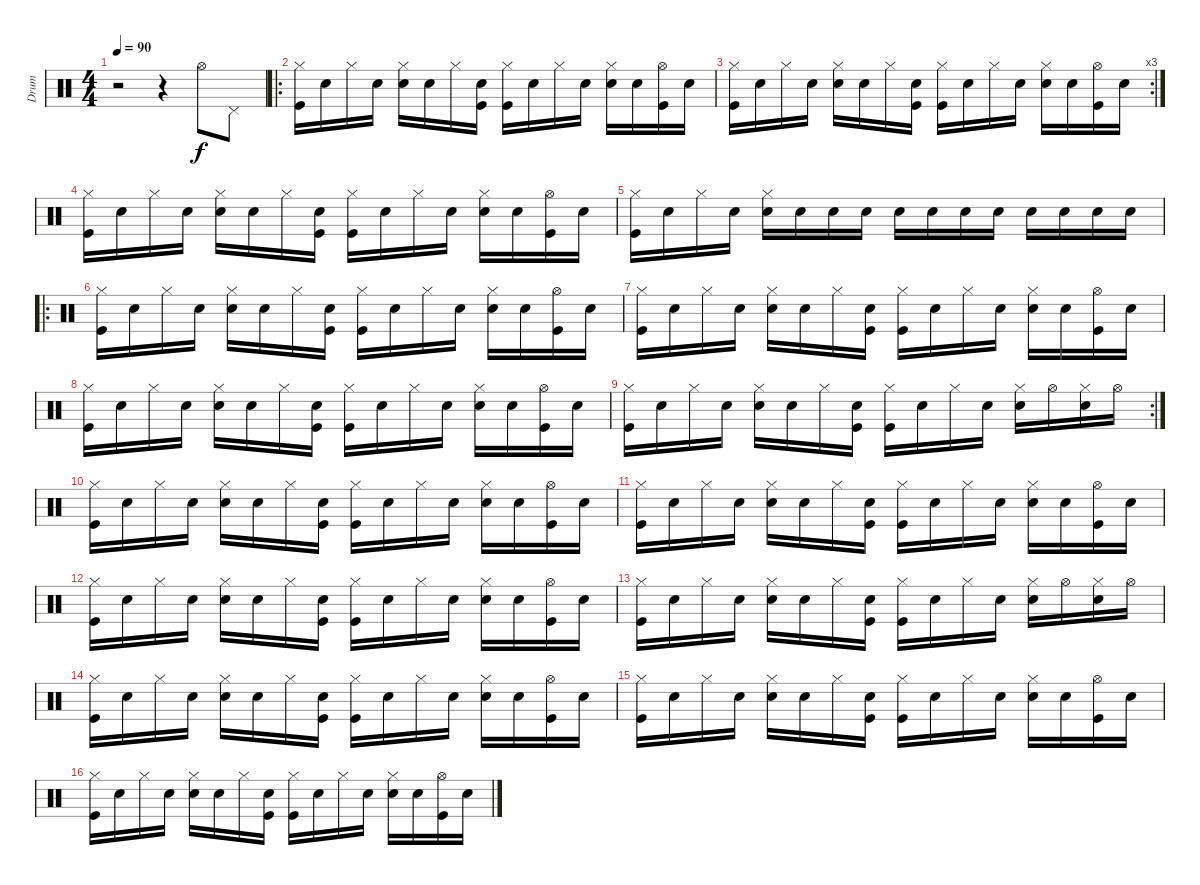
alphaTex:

\track ("Drum" "Drum") {instrument percussion}
\staff {score}
\articulation defaults
\ts (4 4)
\tempo 90
\clef neutral
\ks c
r.2{dy f} r.4 "Hi-Hat (open)".8 "Pedal Hi-Hat (hit)".8 |
\ro
("Hi-Hat (closed)" "Kick (hit)").16 "Snare (hit)".16 "Hi-Hat (closed)".16 "Snare (hit)".16 ("Hi-Hat (closed)" "Electric Snare (hit)").16 "Snare (hit)".16 "Hi-Hat (closed)".16 ("Snare (hit)" "Kick (hit)").16 ("Hi-Hat (closed)" "Kick (hit)").16 "Snare (hit)".16 "Hi-Hat (closed)".16 "Snare (hit)".16 ("Hi-Hat (closed)" "Electric Snare (hit)").16 "Snare (hit)".16 ("Hi-Hat (open)" "Kick (hit)").16 "Snare (hit)".16 |
\rc 3
("Hi-Hat (closed)" "Kick (hit)").16 "Snare (hit)".16 "Hi-Hat (closed)".16 "Snare (hit)".16 ("Hi-Hat (closed)" "Electric Snare (hit)").16 "Snare (hit)".16 "Hi-Hat (closed)".16 ("Snare (hit)" "Kick (hit)").16 ("Hi-Hat (closed)" "Kick (hit)").16 "Snare (hit)".16 "Hi-Hat (closed)".16 "Snare (hit)".16 ("Hi-Hat (closed)" "Electric Snare (hit)").16 "Snare (hit)".16 ("Hi-Hat (open)" "Kick (hit)").16 "Snare (hit)".16 |
("Hi-Hat (closed)" "Kick (hit)").16 "Snare (hit)".16 "Hi-Hat (closed)".16 "Snare (hit)".16 ("Hi-Hat (closed)" "Electric Snare (hit)").16 "Snare (hit)".16 "Hi-Hat (closed)".16 ("Snare (hit)" "Kick (hit)").16 ("Hi-Hat (closed)" "Kick (hit)").16 "Snare (hit)".16 "Hi-Hat (closed)".16 "Snare (hit)".16 ("Hi-Hat (closed)" "Electric Snare (hit)").16 "Snare (hit)".16 ("Hi-Hat (open)" "Kick (hit)").16 "Snare (hit)".16 |
("Hi-Hat (closed)" "Kick (hit)").16 "Snare (hit)".16 "Hi-Hat (closed)".16 "Snare (hit)".16 ("Hi-Hat (closed)" "Electric Snare (hit)").16 "Snare (hit)".16 "Snare (hit)".16 "Snare (hit)".16 "Snare (hit)".16 "Snare (hit)".16 "Snare (hit)".16 "Snare (hit)".16 "Snare (hit)".16 "Snare (hit)".16 "Snare (hit)".16 "Snare (hit)".16 |
\ro
("Hi-Hat (closed)" "Kick (hit)").16 "Snare (hit)".16 "Hi-Hat (closed)".16 "Snare (hit)".16 ("Hi-Hat (closed)" "Electric Snare (hit)").16 "Snare (hit)".16 "Hi-Hat (closed)".16 ("Snare (hit)" "Kick (hit)").16 ("Hi-Hat (closed)" "Kick (hit)").16 "Snare (hit)".16 "Hi-Hat (closed)".16 "Snare (hit)".16 ("Hi-Hat (closed)" "Electric Snare (hit)").16 "Snare (hit)".16 ("Hi-Hat (open)" "Kick (hit)").16 "Snare (hit)".16 |
("Hi-Hat (closed)" "Kick (hit)").16 "Snare (hit)".16 "Hi-Hat (closed)".16 "Snare (hit)".16 ("Hi-Hat (closed)" "Electric Snare (hit)").16 "Snare (hit)".16 "Hi-Hat (closed)".16 ("Snare (hit)" "Kick (hit)").16 ("Hi-Hat (closed)" "Kick (hit)").16 "Snare (hit)".16 "Hi-Hat (closed)".16 "Snare (hit)".16 ("Hi-Hat (closed)" "Electric Snare (hit)").16 "Snare (hit)".16 ("Hi-Hat (open)" "Kick (hit)").16 "Snare (hit)".16 |
("Hi-Hat (closed)" "Kick (hit)").16 "Snare (hit)".16 "Hi-Hat (closed)".16 "Snare (hit)".16 ("Hi-Hat (closed)" "Electric Snare (hit)").16 "Snare (hit)".16 "Hi-Hat (closed)".16 ("Snare (hit)" "Kick (hit)").16 ("Hi-Hat (closed)" "Kick (hit)").16 "Snare (hit)".16 "Hi-Hat (closed)".16 "Snare (hit)".16 ("Hi-Hat (closed)" "Electric Snare (hit)").16 "Snare (hit)".16 ("Hi-Hat (open)" "Kick (hit)").16 "Snare (hit)".16 |
\rc 2
("Hi-Hat (closed)" "Kick (hit)").16 "Snare (hit)".16 "Hi-Hat (closed)".16 "Snare (hit)".16 ("Hi-Hat (closed)" "Electric Snare (hit)").16 "Snare (hit)".16 "Hi-Hat (closed)".16 ("Snare (hit)" "Kick (hit)").16 ("Hi-Hat (closed)" "Kick (hit)").16 "Snare (hit)".16 "Hi-Hat (closed)".16 "Snare (hit)".16 ("Hi-Hat (closed)" "Electric Snare (hit)").16 "Hi-Hat (open)".16 ("Hi-Hat (closed)" "Electric Snare (hit)").16 "Hi-Hat (open)".16 |
("Hi-Hat (closed)" "Kick (hit)").16 "Snare (hit)".16 "Hi-Hat (closed)".16 "Snare (hit)".16 ("Hi-Hat (closed)" "Electric Snare (hit)").16 "Snare (hit)".16 "Hi-Hat (closed)".16 ("Snare (hit)" "Kick (hit)").16 ("Hi-Hat (closed)" "Kick (hit)").16 "Snare (hit)".16 "Hi-Hat (closed)".16 "Snare (hit)".16 ("Hi-Hat (closed)" "Electric Snare (hit)").16 "Snare (hit)".16 ("Hi-Hat (open)" "Kick (hit)").16 "Snare (hit)".16 |
("Hi-Hat (closed)" "Kick (hit)").16 "Snare (hit)".16 "Hi-Hat (closed)".16 "Snare (hit)".16 ("Hi-Hat (closed)" "Electric Snare (hit)").16 "Snare (hit)".16 "Hi-Hat (closed)".16 ("Snare (hit)" "Kick (hit)").16 ("Hi-Hat (closed)" "Kick (hit)").16 "Snare (hit)".16 "Hi-Hat (closed)".16 "Snare (hit)".16 ("Hi-Hat (closed)" "Electric Snare (hit)").16 "Snare (hit)".16 ("Hi-Hat (open)" "Kick (hit)").16 "Snare (hit)".16 |
("Hi-Hat (closed)" "Kick (hit)").16 "Snare (hit)".16 "Hi-Hat (closed)".16 "Snare (hit)".16 ("Hi-Hat (closed)" "Electric Snare (hit)").16 "Snare (hit)".16 "Hi-Hat (closed)".16 ("Snare (hit)" "Kick (hit)").16 ("Hi-Hat (closed)" "Kick (hit)").16 "Snare (hit)".16 "Hi-Hat (closed)".16 "Snare (hit)".16 ("Hi-Hat (closed)" "Electric Snare (hit)").16 "Snare (hit)".16 ("Hi-Hat (open)" "Kick (hit)").16 "Snare (hit)".16 |
("Hi-Hat (closed)" "Kick (hit)").16 "Snare (hit)".16 "Hi-Hat (closed)".16 "Snare (hit)".16 ("Hi-Hat (closed)" "Electric Snare (hit)").16 "Snare (hit)".16 "Hi-Hat (closed)".16 ("Snare (hit)" "Kick (hit)").16 ("Hi-Hat (closed)" "Kick (hit)").16 "Snare (hit)".16 "Hi-Hat (closed)".16 "Snare (hit)".16 ("Hi-Hat (closed)" "Electric Snare (hit)").16 "Hi-Hat (open)".16 ("Hi-Hat (closed)" "Electric Snare (hit)").16 "Hi-Hat (open)".16 |
("Hi-Hat (closed)" "Kick (hit)").16 "Snare (hit)".16 "Hi-Hat (closed)".16 "Snare (hit)".16 ("Hi-Hat (closed)" "Electric Snare (hit)").16 "Snare (hit)".16 "Hi-Hat (closed)".16 ("Snare (hit)" "Kick (hit)").16 ("Hi-Hat (closed)" "Kick (hit)").16 "Snare (hit)".16 "Hi-Hat (closed)".16 "Snare (hit)".16 ("Hi-Hat (closed)" "Electric Snare (hit)").16 "Snare (hit)".16 ("Hi-Hat (open)" "Kick (hit)").16 "Snare (hit)".16 |
("Hi-Hat (closed)" "Kick (hit)").16 "Snare (hit)".16 "Hi-Hat (closed)".16 "Snare (hit)".16 ("Hi-Hat (closed)" "Electric Snare (hit)").16 "Snare (hit)".16 "Hi-Hat (closed)".16 ("Snare (hit)" "Kick (hit)").16 ("Hi-Hat (closed)" "Kick (hit)").16 "Snare (hit)".16 "Hi-Hat (closed)".16 "Snare (hit)".16 ("Hi-Hat (closed)" "Electric Snare (hit)").16 "Snare (hit)".16 ("Hi-Hat (open)" "Kick (hit)").16 "Snare (hit)".16 |
("Hi-Hat (closed)" "Kick (hit)").16 "Snare (hit)".16 "Hi-Hat (closed)".16 "Snare (hit)".16 ("Hi-Hat (closed)" "Electric Snare (hit)").16 "Snare (hit)".16 "Hi-Hat (closed)".16 ("Snare (hit)" "Kick (hit)").16 ("Hi-Hat (closed)" "Kick (hit)").16 "Snare (hit)".16 "Hi-Hat (closed)".16 "Snare (hit)".16 ("Hi-Hat (closed)" "Electric Snare (hit)").16 "Snare (hit)".16 ("Hi-Hat (open)" "Kick (hit)").16 "Snare (hit)".16
